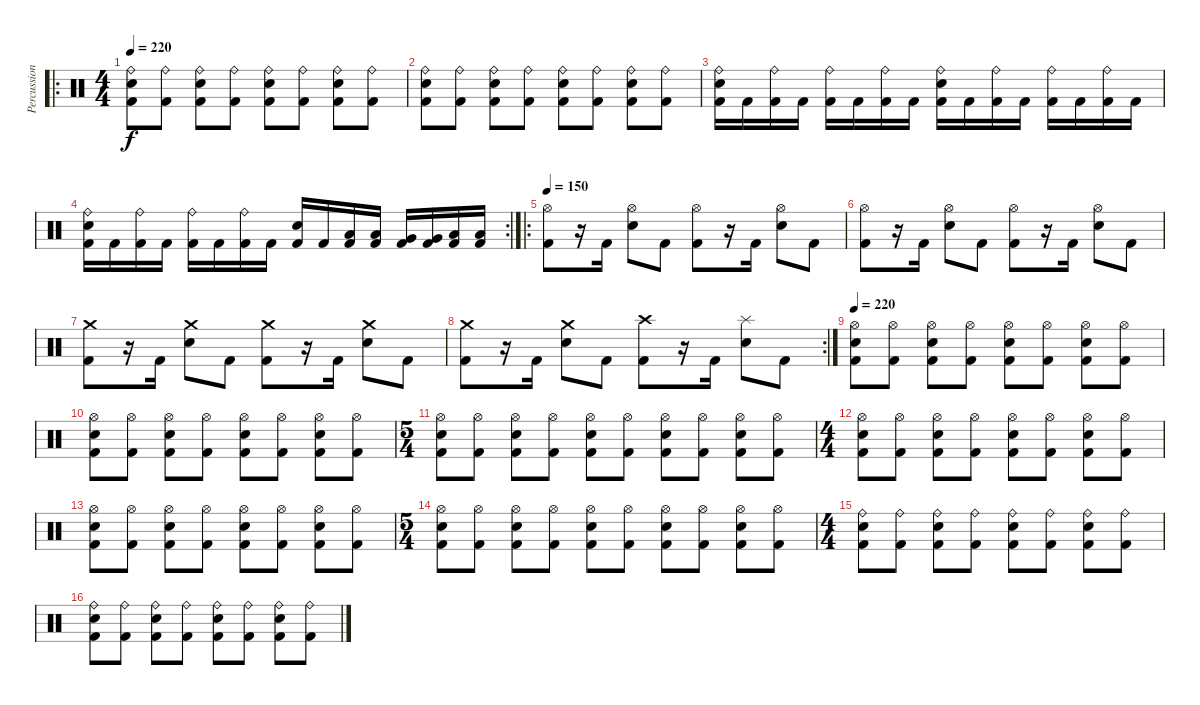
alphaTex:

\track ("Percussions" "Percussion") {instrument percussion}
\staff {score}
\articulation defaults
\ro
\ts (4 4)
\tempo 220
\clef neutral
\ks c
("Kick (hit) 2" "Snare (hit) 2" "Ride (bell)").8{dy f} ("Kick (hit) 2" "Ride (bell)").8 ("Kick (hit) 2" "Snare (hit) 2" "Ride (bell)").8 ("Kick (hit) 2" "Ride (bell)").8 ("Kick (hit) 2" "Snare (hit) 2" "Ride (bell)").8 ("Kick (hit) 2" "Ride (bell)").8 ("Kick (hit) 2" "Snare (hit) 2" "Ride (bell)").8 ("Kick (hit) 2" "Ride (bell)").8 |
("Kick (hit) 2" "Snare (hit) 2" "Ride (bell)").8 ("Kick (hit) 2" "Ride (bell)").8 ("Kick (hit) 2" "Snare (hit) 2" "Ride (bell)").8 ("Kick (hit) 2" "Ride (bell)").8 ("Kick (hit) 2" "Snare (hit) 2" "Ride (bell)").8 ("Kick (hit) 2" "Ride (bell)").8 ("Kick (hit) 2" "Snare (hit) 2" "Ride (bell)").8 ("Kick (hit) 2" "Ride (bell)").8 |
("Kick (hit) 2" "Snare (hit) 2" "Ride (bell)").16 "Kick (hit) 2".16 ("Kick (hit) 2" "Ride (bell)").16 "Kick (hit) 2".16 ("Kick (hit) 2" "Ride (bell)").16 "Kick (hit) 2".16 ("Kick (hit) 2" "Ride (bell)").16 "Kick (hit) 2".16 ("Kick (hit) 2" "Snare (hit) 2" "Ride (bell)").16 "Kick (hit) 2".16 ("Kick (hit) 2" "Ride (bell)").16 "Kick (hit) 2".16 ("Kick (hit) 2" "Ride (bell)").16 "Kick (hit) 2".16 ("Kick (hit) 2" "Ride (bell)").16 "Kick (hit) 2".16 |
\rc 2
("Kick (hit) 2" "Snare (hit) 2" "Ride (bell)").16 "Kick (hit) 2".16 ("Kick (hit) 2" "Ride (bell)").16 "Kick (hit) 2".16 ("Kick (hit) 2" "Ride (bell)").16 "Kick (hit) 2".16 ("Kick (hit) 2" "Ride (bell)").16 "Kick (hit) 2".16 ("Kick (hit) 2" "Snare (hit) 2").16 "Kick (hit) 2".16 ("Kick (hit) 2" "Low Tom (hit)").16 ("Kick (hit) 2" "Low Tom (hit)").16 ("Kick (hit) 2" "Very Low Tom (hit)").16 ("Kick (hit) 2" "Very Low Tom (hit)").16 ("Kick (hit) 2" "Low Floor Tom (hit)").16 ("Kick (hit) 2" "Low Floor Tom (hit)").16 |
\ro
\tempo 150
("Kick (hit) 2" "Hi-Hat (open)").8 r.16 "Kick (hit) 2".16 ("Snare (hit) 2" "Hi-Hat (open)").8 "Kick (hit) 2".8 ("Kick (hit) 2" "Hi-Hat (open)").8 r.16 "Kick (hit) 2".16 ("Snare (hit) 2" "Hi-Hat (open)").8 "Kick (hit) 2".8 |
("Kick (hit) 2" "Hi-Hat (open)").8 r.16 "Kick (hit) 2".16 ("Snare (hit) 2" "Hi-Hat (open)").8 "Kick (hit) 2".8 ("Kick (hit) 2" "Hi-Hat (open)").8 r.16 "Kick (hit) 2".16 ("Snare (hit) 2" "Hi-Hat (open)").8 "Kick (hit) 2".8 |
("Kick (hit) 2" "Crash medium (hit)").8 r.16 "Kick (hit) 2".16 ("Snare (hit) 2" "Crash medium (hit)").8 "Kick (hit) 2".8 ("Kick (hit) 2" "Crash medium (hit)").8 r.16 "Kick (hit) 2".16 ("Snare (hit) 2" "Crash medium (hit)").8 "Kick (hit) 2".8 |
\rc 2
("Kick (hit) 2" "Crash medium (hit)").8 r.16 "Kick (hit) 2".16 ("Snare (hit) 2" "Crash medium (hit)").8 "Kick (hit) 2".8 ("Kick (hit) 2" "Crash high (hit)").8 r.16 "Kick (hit) 2".16 ("Snare (hit) 2" "Splash (hit)").8 "Kick (hit) 2".8 |
\tempo 220
("Kick (hit) 2" "Snare (hit) 2" "Hi-Hat (open)").8 ("Kick (hit) 2" "Hi-Hat (open)").8 ("Kick (hit) 2" "Snare (hit) 2" "Hi-Hat (open)").8 ("Kick (hit) 2" "Hi-Hat (open)").8 ("Kick (hit) 2" "Snare (hit) 2" "Hi-Hat (open)").8 ("Kick (hit) 2" "Hi-Hat (open)").8 ("Kick (hit) 2" "Snare (hit) 2" "Hi-Hat (open)").8 ("Kick (hit) 2" "Hi-Hat (open)").8 |
("Kick (hit) 2" "Snare (hit) 2" "Hi-Hat (open)").8 ("Kick (hit) 2" "Hi-Hat (open)").8 ("Kick (hit) 2" "Snare (hit) 2" "Hi-Hat (open)").8 ("Kick (hit) 2" "Hi-Hat (open)").8 ("Kick (hit) 2" "Snare (hit) 2" "Hi-Hat (open)").8 ("Kick (hit) 2" "Hi-Hat (open)").8 ("Kick (hit) 2" "Snare (hit) 2" "Hi-Hat (open)").8 ("Kick (hit) 2" "Hi-Hat (open)").8 |
\ts (5 4)
("Kick (hit) 2" "Snare (hit) 2" "Hi-Hat (open)").8 ("Kick (hit) 2" "Hi-Hat (open)").8 ("Kick (hit) 2" "Snare (hit) 2" "Hi-Hat (open)").8 ("Kick (hit) 2" "Hi-Hat (open)").8 ("Kick (hit) 2" "Snare (hit) 2" "Hi-Hat (open)").8 ("Kick (hit) 2" "Hi-Hat (open)").8 ("Kick (hit) 2" "Snare (hit) 2" "Hi-Hat (open)").8 ("Kick (hit) 2" "Hi-Hat (open)").8 ("Kick (hit) 2" "Snare (hit) 2" "Hi-Hat (open)").8 ("Kick (hit) 2" "Hi-Hat (open)").8 |
\ts (4 4)
("Kick (hit) 2" "Snare (hit) 2" "Hi-Hat (open)").8 ("Kick (hit) 2" "Hi-Hat (open)").8 ("Kick (hit) 2" "Snare (hit) 2" "Hi-Hat (open)").8 ("Kick (hit) 2" "Hi-Hat (open)").8 ("Kick (hit) 2" "Snare (hit) 2" "Hi-Hat (open)").8 ("Kick (hit) 2" "Hi-Hat (open)").8 ("Kick (hit) 2" "Snare (hit) 2" "Hi-Hat (open)").8 ("Kick (hit) 2" "Hi-Hat (open)").8 |
("Kick (hit) 2" "Snare (hit) 2" "Hi-Hat (open)").8 ("Kick (hit) 2" "Hi-Hat (open)").8 ("Kick (hit) 2" "Snare (hit) 2" "Hi-Hat (open)").8 ("Kick (hit) 2" "Hi-Hat (open)").8 ("Kick (hit) 2" "Snare (hit) 2" "Hi-Hat (open)").8 ("Kick (hit) 2" "Hi-Hat (open)").8 ("Kick (hit) 2" "Snare (hit) 2" "Hi-Hat (open)").8 ("Kick (hit) 2" "Hi-Hat (open)").8 |
\ts (5 4)
("Kick (hit) 2" "Snare (hit) 2" "Hi-Hat (open)").8 ("Kick (hit) 2" "Hi-Hat (open)").8 ("Kick (hit) 2" "Snare (hit) 2" "Hi-Hat (open)").8 ("Kick (hit) 2" "Hi-Hat (open)").8 ("Kick (hit) 2" "Snare (hit) 2" "Hi-Hat (open)").8 ("Kick (hit) 2" "Hi-Hat (open)").8 ("Kick (hit) 2" "Snare (hit) 2" "Hi-Hat (open)").8 ("Kick (hit) 2" "Hi-Hat (open)").8 ("Kick (hit) 2" "Snare (hit) 2" "Hi-Hat (open)").8 ("Kick (hit) 2" "Hi-Hat (open)").8 |
\ts (4 4)
("Kick (hit) 2" "Snare (hit) 2" "Ride (bell)").8 ("Kick (hit) 2" "Ride (bell)").8 ("Kick (hit) 2" "Snare (hit) 2" "Ride (bell)").8 ("Kick (hit) 2" "Ride (bell)").8 ("Kick (hit) 2" "Snare (hit) 2" "Ride (bell)").8 ("Kick (hit) 2" "Ride (bell)").8 ("Kick (hit) 2" "Snare (hit) 2" "Ride (bell)").8 ("Kick (hit) 2" "Ride (bell)").8 |
("Kick (hit) 2" "Snare (hit) 2" "Ride (bell)").8 ("Kick (hit) 2" "Ride (bell)").8 ("Kick (hit) 2" "Snare (hit) 2" "Ride (bell)").8 ("Kick (hit) 2" "Ride (bell)").8 ("Kick (hit) 2" "Snare (hit) 2" "Ride (bell)").8 ("Kick (hit) 2" "Ride (bell)").8 ("Kick (hit) 2" "Snare (hit) 2" "Ride (bell)").8 ("Kick (hit) 2" "Ride (bell)").8
